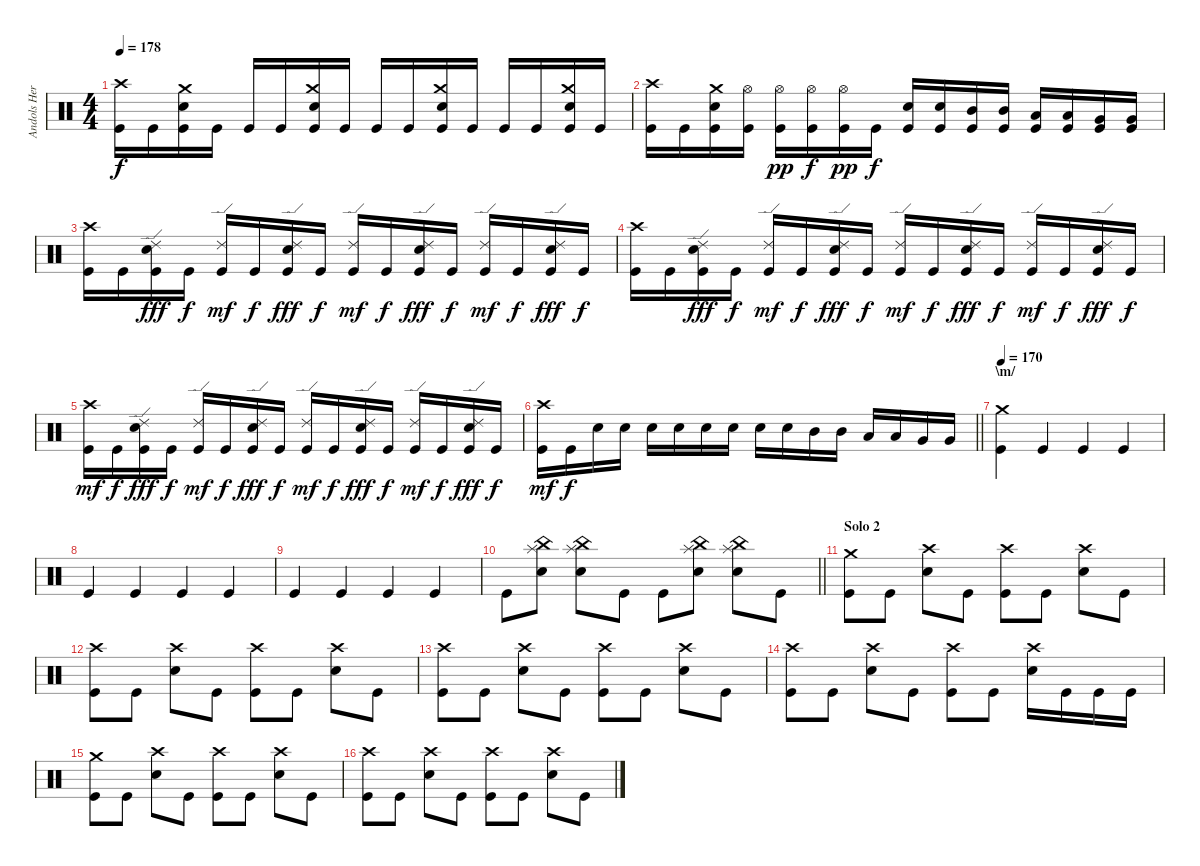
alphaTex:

\track ("Andols Herrick" "Andols Her") {instrument percussion}
\staff {score}
\articulation defaults
\ts (4 4)
\tempo 178
\clef neutral
\ks c
("Crash high (hit)" "Kick (hit)").16{dy f} "Kick (hit)".16 ("Crash medium (hit)" "Electric Snare (hit)" "Kick (hit)").16 "Kick (hit)".16 "Kick (hit)".16 "Kick (hit)".16 ("Crash medium (hit)" "Electric Snare (hit)" "Kick (hit)").16 "Kick (hit)".16 "Kick (hit)".16 "Kick (hit)".16 ("Crash medium (hit)" "Electric Snare (hit)" "Kick (hit)").16 "Kick (hit)".16 "Kick (hit)".16 "Kick (hit)".16 ("Crash medium (hit)" "Electric Snare (hit)" "Kick (hit)").16 "Kick (hit)".16 |
("Crash high (hit)" "Kick (hit)").16 "Kick (hit)".16 ("Crash medium (hit)" "Electric Snare (hit)" "Kick (hit)").16 ("Hi-Hat (open)" "Kick (hit)").16 ("Hi-Hat (open)" "Kick (hit)").16{dy pp} ("Hi-Hat (open)" "Kick (hit)").16{dy f} ("Hi-Hat (open)" "Kick (hit)").16{dy pp} "Kick (hit)".16{dy f} ("Electric Snare (hit)" "Kick (hit)").16 ("Electric Snare (hit)" "Kick (hit)").16 ("Mid Tom (hit)" "Kick (hit)").16 ("Mid Tom (hit)" "Kick (hit)").16 ("Low Tom (hit)" "Kick (hit)").16 ("Low Tom (hit)" "Kick (hit)").16 ("Very Low Tom (hit)" "Kick (hit)").16 ("Very Low Tom (hit)" "Kick (hit)").16 |
("Crash high (hit)" "Kick (hit)").16 "Kick (hit)".16 ("Ride (edge) 2" "Electric Snare (hit)" "Kick (hit)").16{dy fff} "Kick (hit)".16{dy f} ("Ride (edge) 2" "Kick (hit)").16{dy mf} "Kick (hit)".16{dy f} ("Ride (edge) 2" "Electric Snare (hit)" "Kick (hit)").16{dy fff} "Kick (hit)".16{dy f} ("Ride (edge) 2" "Kick (hit)").16{dy mf} "Kick (hit)".16{dy f} ("Ride (edge) 2" "Electric Snare (hit)" "Kick (hit)").16{dy fff} "Kick (hit)".16{dy f} ("Ride (edge) 2" "Kick (hit)").16{dy mf} "Kick (hit)".16{dy f} ("Ride (edge) 2" "Electric Snare (hit)" "Kick (hit)").16{dy fff} "Kick (hit)".16{dy f} |
("Crash high (hit)" "Kick (hit)").16 "Kick (hit)".16 ("Ride (edge) 2" "Electric Snare (hit)" "Kick (hit)").16{dy fff} "Kick (hit)".16{dy f} ("Ride (edge) 2" "Kick (hit)").16{dy mf} "Kick (hit)".16{dy f} ("Ride (edge) 2" "Electric Snare (hit)" "Kick (hit)").16{dy fff} "Kick (hit)".16{dy f} ("Ride (edge) 2" "Kick (hit)").16{dy mf} "Kick (hit)".16{dy f} ("Ride (edge) 2" "Electric Snare (hit)" "Kick (hit)").16{dy fff} "Kick (hit)".16{dy f} ("Ride (edge) 2" "Kick (hit)").16{dy mf} "Kick (hit)".16{dy f} ("Ride (edge) 2" "Electric Snare (hit)" "Kick (hit)").16{dy fff} "Kick (hit)".16{dy f} |
("Crash high (hit)" "Kick (hit)").16{dy mf} "Kick (hit)".16{dy f} ("Ride (edge) 2" "Electric Snare (hit)" "Kick (hit)").16{dy fff} "Kick (hit)".16{dy f} ("Ride (edge) 2" "Kick (hit)").16{dy mf} "Kick (hit)".16{dy f} ("Ride (edge) 2" "Electric Snare (hit)" "Kick (hit)").16{dy fff} "Kick (hit)".16{dy f} ("Ride (edge) 2" "Kick (hit)").16{dy mf} "Kick (hit)".16{dy f} ("Ride (edge) 2" "Electric Snare (hit)" "Kick (hit)").16{dy fff} "Kick (hit)".16{dy f} ("Ride (edge) 2" "Kick (hit)").16{dy mf} "Kick (hit)".16{dy f} ("Ride (edge) 2" "Electric Snare (hit)" "Kick (hit)").16{dy fff} "Kick (hit)".16{dy f} |
\barLineRight lightlight
("Crash high (hit)" "Kick (hit)").16{dy mf} "Kick (hit)".16{dy f} "Electric Snare (hit)".16 "Electric Snare (hit)".16 "Electric Snare (hit)".16 "Electric Snare (hit)".16 "Electric Snare (hit)".16 "Electric Snare (hit)".16 "Electric Snare (hit)".16 "Electric Snare (hit)".16 "Mid Tom (hit)".16 "Mid Tom (hit)".16 "Low Tom (hit)".16 "Low Tom (hit)".16 "Very Low Tom (hit)".16 "Very Low Tom (hit)".16 |
\section ("" "\\m/")
\tempo 170
("Crash medium (hit)" "Kick (hit)").4 "Kick (hit)".4 "Kick (hit)".4 "Kick (hit)".4 |
"Kick (hit)".4 "Kick (hit)".4 "Kick (hit)".4 "Kick (hit)".4 |
"Kick (hit)".4 "Kick (hit)".4 "Kick (hit)".4 "Kick (hit)".4 |
\barLineRight lightlight "Kick (hit)".8
("China (hit)" "Splash (hit)" "Electric Snare (hit)").8 ("China (hit)" "Splash (hit)" "Electric Snare (hit)").8 "Kick (hit)".8 "Kick (hit)".8 ("China (hit)" "Splash (hit)" "Electric Snare (hit)").8 ("China (hit)" "Splash (hit)" "Electric Snare (hit)").8 "Kick (hit)".8 |
\section ("" "Solo 2")
("Crash medium (hit)" "Kick (hit)").8 "Kick (hit)".8 ("Crash high (hit)" "Electric Snare (hit)").8 "Kick (hit)".8 ("Crash high (hit)" "Kick (hit)").8 "Kick (hit)".8 ("Crash high (hit)" "Electric Snare (hit)").8 "Kick (hit)".8 |
("Crash high (hit)" "Kick (hit)").8 "Kick (hit)".8 ("Crash high (hit)" "Electric Snare (hit)").8 "Kick (hit)".8 ("Crash high (hit)" "Kick (hit)").8 "Kick (hit)".8 ("Crash high (hit)" "Electric Snare (hit)").8 "Kick (hit)".8 |
("Crash high (hit)" "Kick (hit)").8 "Kick (hit)".8 ("Crash high (hit)" "Electric Snare (hit)").8 "Kick (hit)".8 ("Crash high (hit)" "Kick (hit)").8 "Kick (hit)".8 ("Crash high (hit)" "Electric Snare (hit)").8 "Kick (hit)".8 |
("Crash high (hit)" "Kick (hit)").8 "Kick (hit)".8 ("Crash high (hit)" "Electric Snare (hit)").8 "Kick (hit)".8 ("Crash high (hit)" "Kick (hit)").8 "Kick (hit)".8 ("Crash high (hit)" "Electric Snare (hit)").16 "Kick (hit)".16 "Kick (hit)".16 "Kick (hit)".16 |
("Crash medium (hit)" "Kick (hit)").8 "Kick (hit)".8 ("Crash high (hit)" "Electric Snare (hit)").8 "Kick (hit)".8 ("Crash high (hit)" "Kick (hit)").8 "Kick (hit)".8 ("Crash high (hit)" "Electric Snare (hit)").8 "Kick (hit)".8 |
("Crash high (hit)" "Kick (hit)").8 "Kick (hit)".8 ("Crash high (hit)" "Electric Snare (hit)").8 "Kick (hit)".8 ("Crash high (hit)" "Kick (hit)").8 "Kick (hit)".8 ("Crash high (hit)" "Electric Snare (hit)").8 "Kick (hit)".8
